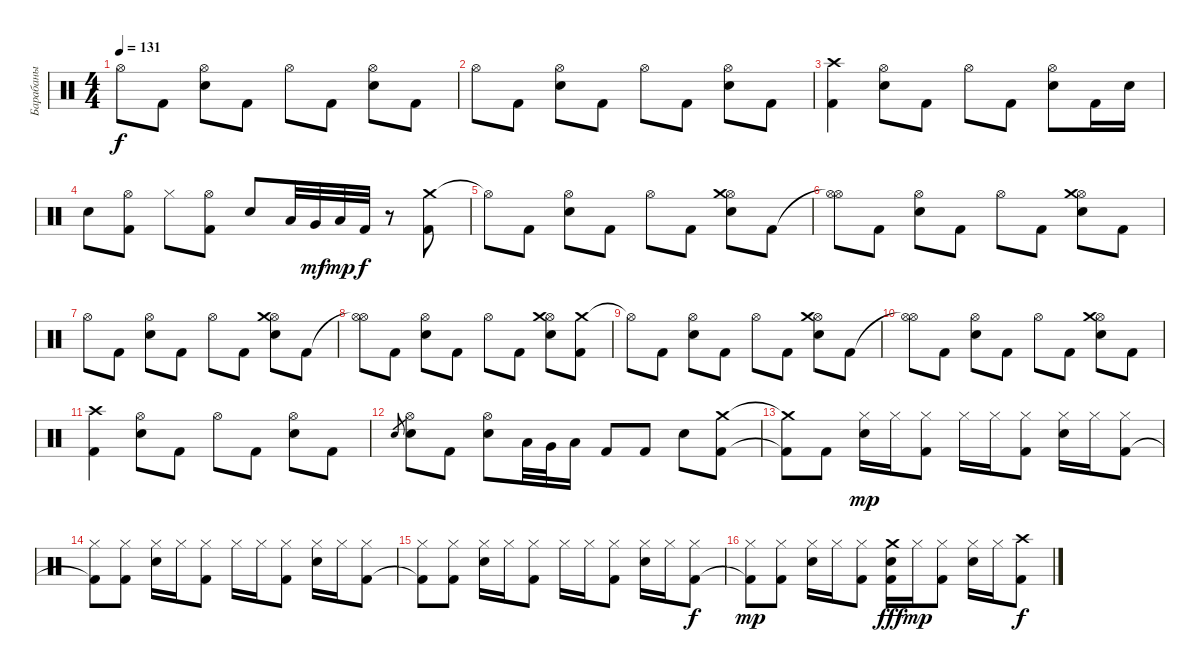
\track ("Барабаны" "Барабаны") {instrument percussion}
\staff {score}
\articulation defaults
\ts (4 4)
\tempo 131
\clef neutral
\ks c "Hi-Hat (open)".8{dy f} "Kick (hit) 2".8
("Snare (hit) 2" "Hi-Hat (open)").8 "Kick (hit) 2".8 "Hi-Hat (open)".8 "Kick (hit) 2".8 ("Hi-Hat (open)" "Snare (hit) 2").8 "Kick (hit) 2".8 |
"Hi-Hat (open)".8 "Kick (hit) 2".8 ("Snare (hit) 2" "Hi-Hat (open)").8 "Kick (hit) 2".8 "Hi-Hat (open)".8 "Kick (hit) 2".8 ("Hi-Hat (open)" "Snare (hit) 2").8 "Kick (hit) 2".8 |
("Crash high (hit)" "Kick (hit) 2").4 ("Hi-Hat (open)" "Snare (hit) 2").8 "Kick (hit) 2".8 "Hi-Hat (open)".8 "Kick (hit) 2".8 ("Hi-Hat (open)" "Snare (hit) 2").8 "Kick (hit) 2".16 "Snare (hit) 2".16 |
"Snare (hit) 2".8 ("Hi-Hat (open)" "Kick (hit) 2").8 "Hi-Hat (closed)".8 ("Hi-Hat (open)" "Kick (hit) 2").8 "Electric Snare (hit)".8 "Low Tom (hit)".32 "Very Low Tom (hit)".32{dy mf} "Low Floor Tom (hit)".32{dy mp} "Kick (hit) 2".32{dy f} r.8 ("Crash medium (hit)" "Kick (hit) 2").8 |
"Hi-Hat (open)"{t}.8 "Kick (hit) 2".8 ("Snare (hit) 2" "Hi-Hat (open)").8 "Kick (hit) 2".8 "Hi-Hat (open)".8 "Kick (hit) 2".8 ("Hi-Hat (open)" "Snare (hit) 2" "Crash medium (hit)").8 "Kick (hit) 2".8 |
("Hi-Hat (open)"{t} "Hi-Hat (open)").8 "Kick (hit) 2".8 ("Snare (hit) 2" "Hi-Hat (open)").8 "Kick (hit) 2".8 "Hi-Hat (open)".8 "Kick (hit) 2".8 ("Hi-Hat (open)" "Snare (hit) 2" "Crash medium (hit)").8 "Kick (hit) 2".8 |
"Hi-Hat (open)".8 "Kick (hit) 2".8 ("Snare (hit) 2" "Hi-Hat (open)").8 "Kick (hit) 2".8 "Hi-Hat (open)".8 "Kick (hit) 2".8 ("Hi-Hat (open)" "Snare (hit) 2" "Crash medium (hit)").8 "Kick (hit) 2".8 |
("Hi-Hat (open)"{t} "Hi-Hat (open)").8 "Kick (hit) 2".8 ("Snare (hit) 2" "Hi-Hat (open)").8 "Kick (hit) 2".8 "Hi-Hat (open)".8 "Kick (hit) 2".8 ("Hi-Hat (open)" "Snare (hit) 2" "Crash medium (hit)").8 ("Crash medium (hit)" "Kick (hit) 2").8 |
"Hi-Hat (open)"{t}.8 "Kick (hit) 2".8 ("Snare (hit) 2" "Hi-Hat (open)").8 "Kick (hit) 2".8 "Hi-Hat (open)".8 "Kick (hit) 2".8 ("Hi-Hat (open)" "Snare (hit) 2" "Crash medium (hit)").8 "Kick (hit) 2".8 |
("Hi-Hat (open)"{t} "Hi-Hat (open)").8 "Kick (hit) 2".8 ("Snare (hit) 2" "Hi-Hat (open)").8 "Kick (hit) 2".8 "Hi-Hat (open)".8 "Kick (hit) 2".8 ("Hi-Hat (open)" "Snare (hit) 2" "Crash medium (hit)").8 "Kick (hit) 2".8 |
("Crash high (hit)" "Kick (hit) 2").4 ("Hi-Hat (open)" "Snare (hit) 2").8 "Kick (hit) 2".8 "Hi-Hat (open)".8 "Kick (hit) 2".8 ("Hi-Hat (open)" "Snare (hit) 2").8 "Kick (hit) 2".8 |
"Snare (hit) 2".8{gr} ("Hi-Hat (open)" "Snare (hit) 2").8 "Kick (hit) 2".8 ("Hi-Hat (open)" "Snare (hit) 2").8 "Low Tom (hit)".32 "Very Low Tom (hit)".32 "Low Floor Tom (hit)".16 "Kick (hit) 2".8 "Kick (hit) 2".8 "Snare (hit) 2".8 ("Crash medium (hit)" "Kick (hit) 2").8 |
("Crash medium (hit)"{t} "Kick (hit) 2"{t}).8 "Kick (hit) 2".8 ("Hi-Hat (closed)" "Snare (hit) 2").16{dy mp} "Hi-Hat (closed)".16 ("Hi-Hat (closed)" "Kick (hit) 2").8 "Hi-Hat (closed)".16 "Hi-Hat (closed)".16 ("Hi-Hat (closed)" "Kick (hit) 2").8 ("Hi-Hat (closed)" "Snare (hit) 2").16 "Hi-Hat (closed)".16 ("Hi-Hat (closed)" "Kick (hit) 2").8 |
("Hi-Hat (closed)" "Kick (hit) 2"{t}).8 ("Hi-Hat (closed)" "Kick (hit) 2").8 ("Hi-Hat (closed)" "Snare (hit) 2").16 "Hi-Hat (closed)".16 ("Hi-Hat (closed)" "Kick (hit) 2").8 "Hi-Hat (closed)".16 "Hi-Hat (closed)".16 ("Hi-Hat (closed)" "Kick (hit) 2").8 ("Hi-Hat (closed)" "Snare (hit) 2").16 "Hi-Hat (closed)".16 ("Hi-Hat (closed)" "Kick (hit) 2").8 |
("Hi-Hat (closed)" "Kick (hit) 2"{t}).8 ("Hi-Hat (closed)" "Kick (hit) 2").8 ("Hi-Hat (closed)" "Snare (hit) 2").16 "Hi-Hat (closed)".16 ("Hi-Hat (closed)" "Kick (hit) 2").8 "Hi-Hat (closed)".16 "Hi-Hat (closed)".16 ("Hi-Hat (closed)" "Kick (hit) 2").8 ("Hi-Hat (closed)" "Snare (hit) 2").16 "Hi-Hat (closed)".16 ("Hi-Hat (closed)" "Kick (hit) 2").8{dy f} |
("Hi-Hat (closed)" "Kick (hit) 2"{t}).8{dy mp} ("Hi-Hat (closed)" "Kick (hit) 2").8 ("Hi-Hat (closed)" "Snare (hit) 2").16 "Hi-Hat (closed)".16 ("Hi-Hat (closed)" "Kick (hit) 2").8 ("Crash medium (hit)" "Snare (hit) 2" "Kick (hit) 2").16{dy fff} "Hi-Hat (closed)".16{dy mp} ("Hi-Hat (closed)" "Kick (hit) 2").8 ("Hi-Hat (closed)" "Snare (hit) 2").16 "Hi-Hat (closed)".16 ("Crash high (hit)" "Kick (hit) 2").8{dy f}
